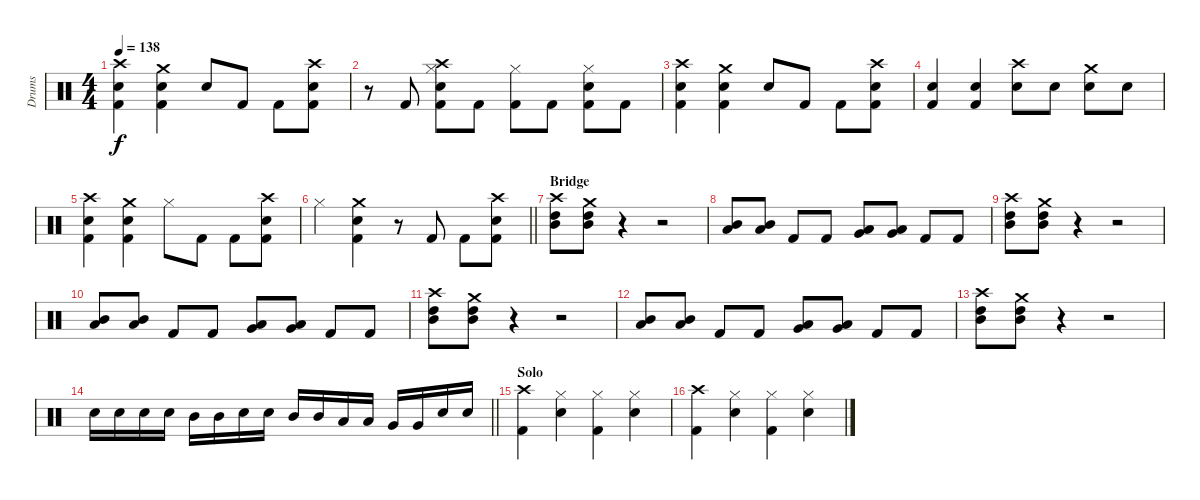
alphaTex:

\track ("Drums" "Drums") {instrument percussion}
\staff {score}
\articulation defaults
\ts (4 4)
\tempo 138
\clef neutral
\ks c
("Crash high (hit)" "Snare (hit) 2" "Kick (hit) 2").4{dy f} ("Crash medium (hit)" "Snare (hit) 2" "Kick (hit) 2").4 "Snare (hit) 2".8 "Kick (hit) 2".8 "Kick (hit) 2".8 ("Crash high (hit)" "Snare (hit) 2" "Kick (hit) 2").8 |
r.8 "Kick (hit) 2".8 ("Crash high (hit)" "Snare (hit) 2" "Hi-Hat (closed)" "Kick (hit) 2").8 "Kick (hit) 2".8 ("Hi-Hat (closed)" "Kick (hit) 2").8 "Kick (hit) 2".8 ("Snare (hit) 2" "Hi-Hat (closed)" "Kick (hit) 2").8 "Kick (hit) 2".8 |
("Crash high (hit)" "Snare (hit) 2" "Kick (hit) 2").4 ("Crash medium (hit)" "Snare (hit) 2" "Kick (hit) 2").4 "Snare (hit) 2".8 "Kick (hit) 2".8 "Kick (hit) 2".8 ("Crash high (hit)" "Snare (hit) 2" "Kick (hit) 2").8 |
("Snare (hit) 2" "Kick (hit) 2").4 ("Snare (hit) 2" "Kick (hit) 2").4 ("Crash high (hit)" "Snare (hit) 2").8 "Snare (hit) 2".8 ("Crash medium (hit)" "Snare (hit) 2").8 "Snare (hit) 2".8 |
("Crash high (hit)" "Snare (hit) 2" "Kick (hit) 2").4 ("Crash medium (hit)" "Snare (hit) 2" "Kick (hit) 2").4 "Hi-Hat (closed)".8 "Kick (hit) 2".8 "Kick (hit) 2".8 ("Crash high (hit)" "Snare (hit) 2" "Kick (hit) 2").8 |
\barLineRight lightlight "Hi-Hat (closed)".4
("Crash medium (hit)" "Snare (hit) 2" "Kick (hit) 2").4 r.8 "Kick (hit) 2".8 "Kick (hit) 2".8 ("Crash high (hit)" "Snare (hit) 2" "Kick (hit) 2").8 |
\section ("" "Bridge")
("Crash high (hit)" "High Tom (hit)" "Mid Tom (hit)").8 ("Crash medium (hit)" "High Tom (hit)" "Mid Tom (hit)").8 r.4 r.2 |
("Mid Tom (hit)" "Low Tom (hit)").8 ("Mid Tom (hit)" "Low Tom (hit)").8 "Kick (hit) 2".8 "Kick (hit) 2".8 ("Low Tom (hit)" "Very Low Tom (hit)").8 ("Low Tom (hit)" "Very Low Tom (hit)").8 "Kick (hit) 2".8 "Kick (hit) 2".8 |
("Crash high (hit)" "High Tom (hit)" "Mid Tom (hit)").8 ("Crash medium (hit)" "High Tom (hit)" "Mid Tom (hit)").8 r.4 r.2 |
("Mid Tom (hit)" "Low Tom (hit)").8 ("Mid Tom (hit)" "Low Tom (hit)").8 "Kick (hit) 2".8 "Kick (hit) 2".8 ("Low Tom (hit)" "Very Low Tom (hit)").8 ("Low Tom (hit)" "Very Low Tom (hit)").8 "Kick (hit) 2".8 "Kick (hit) 2".8 |
("Crash high (hit)" "High Tom (hit)" "Mid Tom (hit)").8 ("Crash medium (hit)" "High Tom (hit)" "Mid Tom (hit)").8 r.4 r.2 |
("Mid Tom (hit)" "Low Tom (hit)").8 ("Mid Tom (hit)" "Low Tom (hit)").8 "Kick (hit) 2".8 "Kick (hit) 2".8 ("Low Tom (hit)" "Very Low Tom (hit)").8 ("Low Tom (hit)" "Very Low Tom (hit)").8 "Kick (hit) 2".8 "Kick (hit) 2".8 |
("Crash high (hit)" "High Tom (hit)" "Mid Tom (hit)").8 ("Crash medium (hit)" "High Tom (hit)" "Mid Tom (hit)").8 r.4 r.2 |
\barLineRight lightlight "Snare (hit) 2".16 "Snare (hit) 2".16 "Snare (hit) 2".16 "Snare (hit) 2".16 "Mid Tom (hit)".16 "Mid Tom (hit)".16 "Snare (hit) 2".16 "Snare (hit) 2".16 "Mid Tom (hit)".16 "Mid Tom (hit)".16 "Low Tom (hit)".16 "Low Tom (hit)".16 "Very Low Tom (hit)".16 "Very Low Tom (hit)".16 "Snare (hit) 2".16 "Snare (hit) 2".16
|
\section ("" "Solo")
("Crash high (hit)" "Kick (hit) 2").4 ("Snare (hit) 2" "Hi-Hat (closed)").4 ("Hi-Hat (closed)" "Kick (hit) 2").4 ("Snare (hit) 2" "Hi-Hat (closed)").4 |
("Crash high (hit)" "Kick (hit) 2").4 ("Snare (hit) 2" "Hi-Hat (closed)").4 ("Hi-Hat (closed)" "Kick (hit) 2").4 ("Snare (hit) 2" "Hi-Hat (closed)").4
